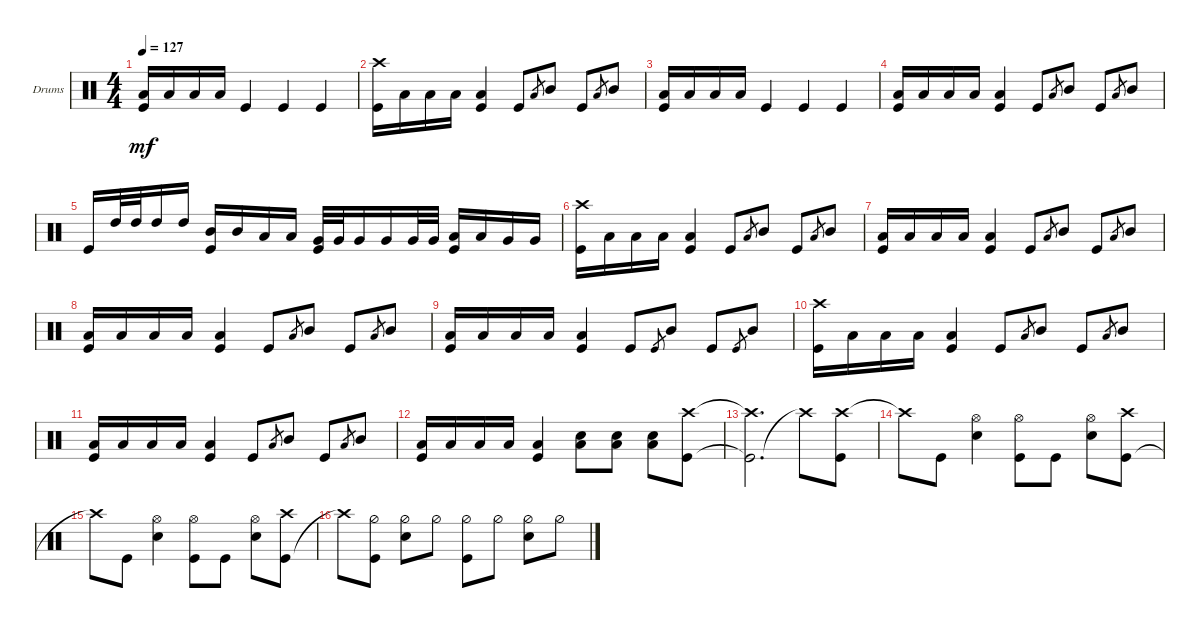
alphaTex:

\defaultSystemsLayout 4
\bracketExtendMode groupsimilarinstruments
\firstSystemTrackNameOrientation horizontal
\otherSystemsTrackNameOrientation horizontal
\track ("Drumkit" "Drums") {instrument percussion}
\staff {score}
\articulation defaults
\ts (4 4)
\tempo 127
\clef neutral
\scale
0.333333
\ks c
("Kick (hit)" "Low Tom (hit)").16{dy mf} "Low Tom (hit)".16 "Low Tom (hit)".16 "Low Tom (hit)".16 "Kick (hit)".4 "Kick (hit)".4 "Kick (hit)".4 |
\scale
0.333333 ("Kick (hit)" "Crash high (hit)").16 "Low Tom (hit)".16 "Low Tom (hit)".16 "Low Tom (hit)".16 ("Low Tom (hit)" "Kick (hit)").4 "Kick (hit)".8 "Low Tom (hit)".8{gr} "Mid Tom (hit)".8 "Kick (hit)".8 "Low Tom (hit)".8{gr} "Mid Tom (hit)".8 |
\scale
0.333333 ("Kick (hit)" "Low Tom (hit)").16 "Low Tom (hit)".16 "Low Tom (hit)".16 "Low Tom (hit)".16 "Kick (hit)".4 "Kick (hit)".4 "Kick (hit)".4 |
\scale
0.333333 ("Kick (hit)" "Low Tom (hit)").16 "Low Tom (hit)".16 "Low Tom (hit)".16 "Low Tom (hit)".16 ("Low Tom (hit)" "Kick (hit)").4 "Kick (hit)".8 "Low Tom (hit)".8{gr} "Mid Tom (hit)".8 "Kick (hit)".8 "Low Tom (hit)".8{gr} "Mid Tom (hit)".8 |
\scale
0.333333 "Kick (hit)".16 "High Tom (hit)".32 "High Tom (hit)".32 "High Tom (hit)".16 "High Tom (hit)".16 ("Mid Tom (hit)" "Kick (hit)").16 "Mid Tom (hit)".16 "Low Tom (hit)".16 "Low Tom (hit)".16 ("Kick (hit)" "Very Low Tom (hit)").32 "Very Low Tom (hit)".32 "Very Low Tom (hit)".16 "Very Low Tom (hit)".16 "Very Low Tom (hit)".32 "Very Low Tom (hit)".32 ("Kick (hit)" "Low Tom (hit)").16 "Low Tom (hit)".16 "Very Low Tom (hit)".16 "Very Low Tom (hit)".16 |
\scale
0.333333 ("Kick (hit)" "Crash high (hit)").16 "Low Tom (hit)".16 "Low Tom (hit)".16 "Low Tom (hit)".16 ("Low Tom (hit)" "Kick (hit)").4 "Kick (hit)".8 "Low Tom (hit)".8{gr} "Mid Tom (hit)".8 "Kick (hit)".8 "Low Tom (hit)".8{gr} "Mid Tom (hit)".8 |
\scale
0.333333 ("Kick (hit)" "Low Tom (hit)").16 "Low Tom (hit)".16 "Low Tom (hit)".16 "Low Tom (hit)".16 ("Low Tom (hit)" "Kick (hit)").4 "Kick (hit)".8 "Low Tom (hit)".8{gr} "Mid Tom (hit)".8 "Kick (hit)".8 "Low Tom (hit)".8{gr} "Mid Tom (hit)".8 |
\scale
0.333333 ("Kick (hit)" "Low Tom (hit)").16 "Low Tom (hit)".16 "Low Tom (hit)".16 "Low Tom (hit)".16 ("Low Tom (hit)" "Kick (hit)").4 "Kick (hit)".8 "Low Tom (hit)".8{gr} "Mid Tom (hit)".8 "Kick (hit)".8 "Low Tom (hit)".8{gr} "Mid Tom (hit)".8 |
\scale
0.333333 ("Kick (hit)" "Low Tom (hit)").16 "Low Tom (hit)".16 "Low Tom (hit)".16 "Low Tom (hit)".16 ("Low Tom (hit)" "Kick (hit)").4 "Kick (hit)".8 "Kick (hit)".8{gr} "Mid Tom (hit)".8 "Kick (hit)".8 "Kick (hit)".8{gr} "Mid Tom (hit)".8 |
\scale
0.333333 ("Kick (hit)" "Crash high (hit)").16 "Low Tom (hit)".16 "Low Tom (hit)".16 "Low Tom (hit)".16 ("Low Tom (hit)" "Kick (hit)").4 "Kick (hit)".8 "Low Tom (hit)".8{gr} "Mid Tom (hit)".8 "Kick (hit)".8 "Low Tom (hit)".8{gr} "Mid Tom (hit)".8 |
\scale
0.333333 ("Kick (hit)" "Low Tom (hit)").16 "Low Tom (hit)".16 "Low Tom (hit)".16 "Low Tom (hit)".16 ("Low Tom (hit)" "Kick (hit)").4 "Kick (hit)".8 "Low Tom (hit)".8{gr} "Mid Tom (hit)".8 "Kick (hit)".8 "Low Tom (hit)".8{gr} "Mid Tom (hit)".8 |
\scale
0.333333 ("Kick (hit)" "Low Tom (hit)").16 "Low Tom (hit)".16 "Low Tom (hit)".16 "Low Tom (hit)".16 ("Low Tom (hit)" "Kick (hit)").4 ("Snare (hit) 2" "Low Tom (hit)").8 ("Snare (hit) 2" "Low Tom (hit)").8 ("Snare (hit) 2" "Low Tom (hit)").8 ("Kick (hit)" "Crash high (hit)").8 |
\scale
0.333333 ("Kick (hit)"{t} "Crash high (hit)"{t}).2{d} "Crash high (hit)"{t}.8 ("Crash high (hit)" "Kick (hit)").8 |
\scale
0.333333 "Crash high (hit)"{t}.8 "Kick (hit)".8 ("Snare (hit) 2" "Hi-Hat (open)").4 ("Kick (hit)" "Hi-Hat (open)").8 "Kick (hit)".8 ("Snare (hit) 2" "Hi-Hat (open)").8 ("Kick (hit)" "Crash high (hit)").8 |
\scale
0.333333 "Crash high (hit)"{t}.8 "Kick (hit)".8 ("Snare (hit) 2" "Hi-Hat (open)").4 ("Kick (hit)" "Hi-Hat (open)").8 "Kick (hit)".8 ("Snare (hit) 2" "Hi-Hat (open)").8 ("Kick (hit)" "Crash high (hit)").8 |
\scale
0.333333 "Crash high (hit)"{t}.8 ("Hi-Hat (half)" "Kick (hit)").8 ("Snare (hit) 2" "Hi-Hat (half)").8 "Hi-Hat (half)".8 ("Hi-Hat (half)" "Kick (hit)").8 "Hi-Hat (half)".8 ("Hi-Hat (half)" "Snare (hit) 2").8 "Hi-Hat (half)".8
